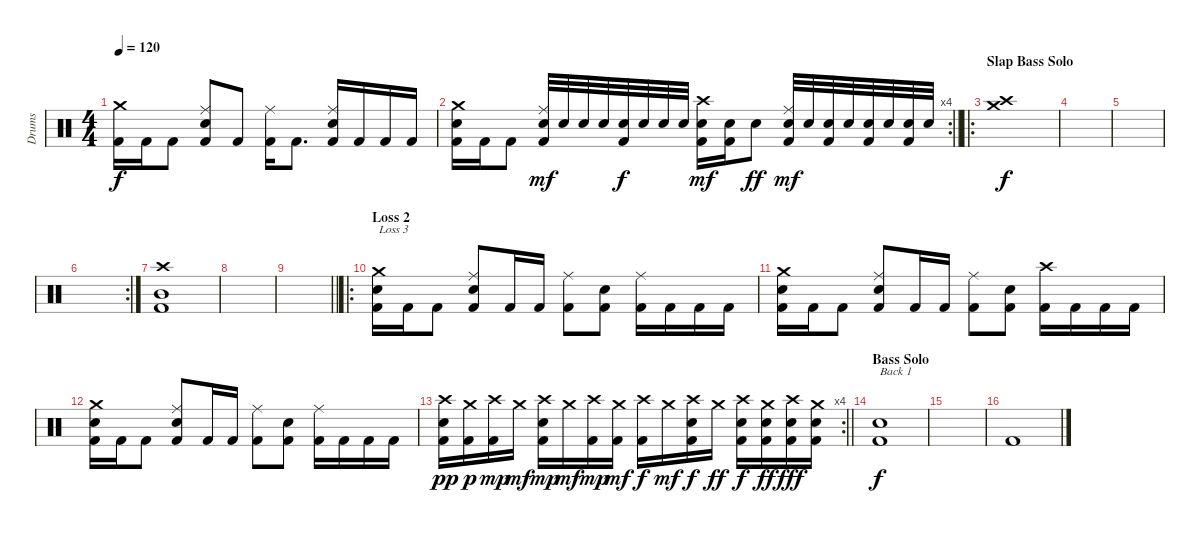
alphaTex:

\track ("Drums" "Drums") {instrument percussion}
\staff {score}
\articulation defaults
\ts (4 4)
\tempo 120
\clef neutral
\ks c
("Crash medium (hit)" "Kick (hit) 2").16{dy f} "Kick (hit) 2".16 "Kick (hit) 2".8 ("Ride (middle)" "Electric Snare (hit)" "Kick (hit) 2").8 "Kick (hit) 2".8 ("Ride (middle)" "Kick (hit) 2").16 "Kick (hit) 2".8{d} ("Ride (middle)" "Electric Snare (hit)" "Kick (hit) 2").16 "Kick (hit) 2".16 "Kick (hit) 2".16 "Kick (hit) 2".16 |
\rc 4
\barLineRight lightlight
("Crash medium (hit)" "Electric Snare (hit)" "Kick (hit) 2").16 "Kick (hit) 2".16 "Kick (hit) 2".8 ("Ride (middle)" "Electric Snare (hit)" "Kick (hit) 2").32{dy mf} "Electric Snare (hit)".32 "Electric Snare (hit)".32 "Electric Snare (hit)".32 ("Electric Snare (hit)" "Kick (hit) 2").32{dy f} "Electric Snare (hit)".32 "Electric Snare (hit)".32 "Electric Snare (hit)".32 ("Crash high (hit)" "Electric Snare (hit)" "Kick (hit) 2").16{dy mf} ("Electric Snare (hit)" "Kick (hit) 2").16 "Electric Snare (hit)".8{dy ff} ("Ride (middle)" "Electric Snare (hit)" "Kick (hit) 2").32{dy mf} "Electric Snare (hit)".32 ("Electric Snare (hit)" "Kick (hit) 2").32 "Electric Snare (hit)".32 ("Electric Snare (hit)" "Kick (hit) 2").32 "Electric Snare (hit)".32 ("Electric Snare (hit)" "Kick (hit) 2").32 "Electric Snare (hit)".32 |
\ro
\section ("" "Slap Bass Solo")
("Crash high (hit)" "Crash medium (hit)").1{dy f} |
|
|
\rc 2
|
("Crash high (hit)" "Mid Tom (hit)" "Kick (hit) 2").1 |
|
\barLineRight lightlight
|
\ro
\section ("" "Loss 2")
("Crash medium (hit)" "Electric Snare (hit)" "Kick (hit) 2").16{txt "Loss 3"} "Kick (hit) 2".16 "Kick (hit) 2".8 ("Ride (middle)" "Electric Snare (hit)" "Kick (hit) 2").8 "Kick (hit) 2".16 "Kick (hit) 2".16 ("Ride (middle)" "Kick (hit) 2").8 ("Electric Snare (hit)" "Kick (hit) 2").8 ("Ride (middle)" "Kick (hit) 2").16 "Kick (hit) 2".16 "Kick (hit) 2".16 "Kick (hit) 2".16 |
("Crash medium (hit)" "Electric Snare (hit)" "Kick (hit) 2").16 "Kick (hit) 2".16 "Kick (hit) 2".8 ("Ride (middle)" "Electric Snare (hit)" "Kick (hit) 2").8 "Kick (hit) 2".16 "Kick (hit) 2".16 ("Ride (middle)" "Kick (hit) 2").8 ("Electric Snare (hit)" "Kick (hit) 2").8 ("Crash high (hit)" "Kick (hit) 2").16 "Kick (hit) 2".16 "Kick (hit) 2".16 "Kick (hit) 2".16 |
("Crash medium (hit)" "Electric Snare (hit)" "Kick (hit) 2").16 "Kick (hit) 2".16 "Kick (hit) 2".8 ("Ride (middle)" "Electric Snare (hit)" "Kick (hit) 2").8 "Kick (hit) 2".16 "Kick (hit) 2".16 ("Ride (middle)" "Kick (hit) 2").8 ("Electric Snare (hit)" "Kick (hit) 2").8 ("Ride (middle)" "Kick (hit) 2").16 "Kick (hit) 2".16 "Kick (hit) 2".16 "Kick (hit) 2".16 |
\rc 4
\barLineRight lightlight
("Crash high (hit)" "Electric Snare (hit)" "Kick (hit) 2").16{dy pp} ("Crash medium (hit)" "Kick (hit) 2").16{dy p} ("Crash high (hit)" "Kick (hit) 2").16{dy mp} "Crash medium (hit)".16{dy mf} ("Crash high (hit)" "Electric Snare (hit)" "Kick (hit) 2").16{dy mp} "Crash medium (hit)".16{dy mf} ("Crash high (hit)" "Kick (hit) 2").16{dy mp} ("Crash medium (hit)" "Kick (hit) 2").16{dy mf} ("Crash high (hit)" "Kick (hit) 2").16{dy f} "Crash medium (hit)".16{dy mf} ("Crash high (hit)" "Electric Snare (hit)" "Kick (hit) 2").16{dy f} "Crash medium (hit)".16{dy ff} ("Crash high (hit)" "Electric Snare (hit)" "Kick (hit) 2").16{dy f} ("Crash medium (hit)" "Electric Snare (hit)" "Kick (hit) 2").16{dy ff} ("Crash high (hit)" "Electric Snare (hit)" "Kick (hit) 2").16{dy fff} ("Crash medium (hit)" "Electric Snare (hit)" "Kick (hit) 2").16 |
\section ("" "Bass Solo")
("Snare (hit) 2" "Kick (hit) 2").1{txt "Back 1" dy f} |
|
"Kick (hit) 2".1
